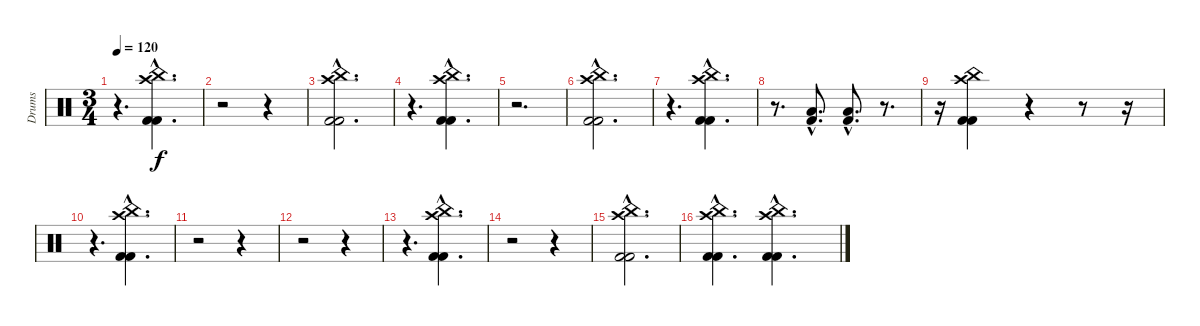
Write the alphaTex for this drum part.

\track ("Drums" "Drums") {instrument percussion}
\staff {score}
\articulation defaults
\ts (3 4)
\tempo 120
\clef neutral
\ks c
r.4{d dy f} ("Kick (hit) 2"{hac} "Crash high (hit)"{hac} "China (hit)"{hac} "Kick (hit) 2"{hac}).4{d} |
r.2 r.4 |
("Kick (hit) 2"{hac} "Crash high (hit)"{hac} "China (hit)"{hac} "Kick (hit) 2"{hac}).2{d} |
r.4{d} ("Kick (hit) 2"{hac} "Crash high (hit)"{hac} "China (hit)"{hac} "Kick (hit) 2"{hac}).4{d} |
r.2{d} |
("Kick (hit) 2"{hac} "Crash high (hit)"{hac} "China (hit)"{hac} "Kick (hit) 2"{hac}).2{d} |
r.4{d} ("Kick (hit) 2"{hac} "Crash high (hit)"{hac} "China (hit)"{hac} "Kick (hit) 2"{hac}).4{d} |
r.8{d} ("Low Tom (hit)"{hac} "Kick (hit) 2"{hac}).8{d} ("Low Tom (hit)"{hac} "Kick (hit) 2"{hac}).8{d} r.8{d} |
r.16 ("Kick (hit) 2" "Crash high (hit)" "China (hit)" "Kick (hit) 2").4 r.4 r.8 r.16 |
r.4{d} ("Kick (hit) 2"{hac} "Crash high (hit)"{hac} "China (hit)"{hac} "Kick (hit) 2"{hac}).4{d} |
r.2 r.4 |
r.2 r.4 |
r.4{d} ("Kick (hit) 2"{hac} "Crash high (hit)"{hac} "China (hit)"{hac} "Kick (hit) 2"{hac}).4{d} |
r.2 r.4 |
("Kick (hit) 2"{hac} "Crash high (hit)"{hac} "China (hit)"{hac} "Kick (hit) 2"{hac}).2{d} |
("Kick (hit) 2"{hac} "Crash high (hit)"{hac} "China (hit)"{hac} "Kick (hit) 2"{hac}).4{d} ("Kick (hit) 2"{hac} "Crash high (hit)"{hac} "China (hit)"{hac} "Kick (hit) 2"{hac}).4{d}
